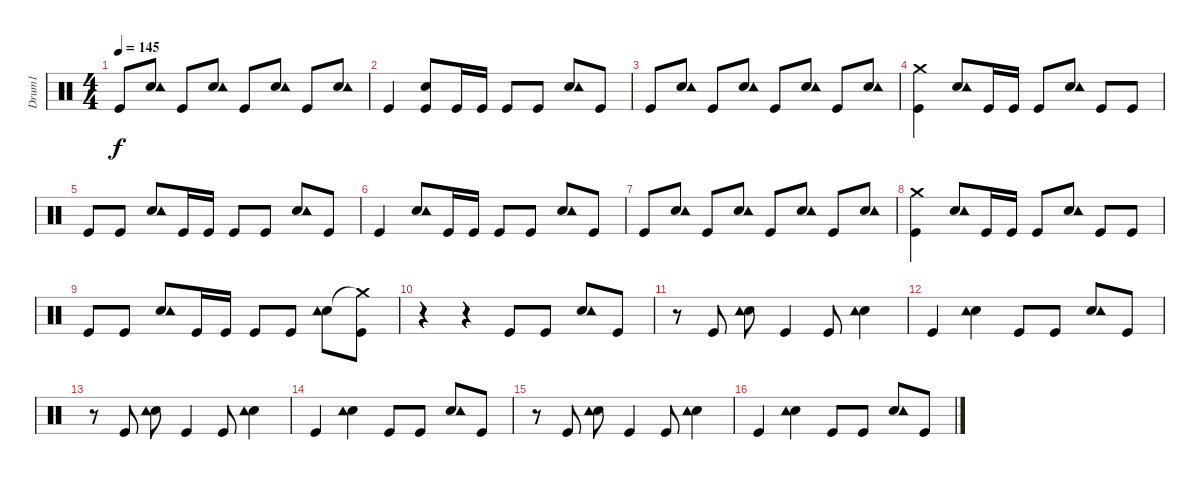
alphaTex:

\track ("Drum1" "Drum1") {instrument percussion}
\staff {score}
\articulation defaults
\ts (4 4)
\tempo 145
\clef neutral
\ks c "Kick (hit)".8{dy f}
("Snare (hit) 2" "Tambourine (hit)").8 "Kick (hit)".8 ("Snare (hit) 2" "Tambourine (hit)").8 "Kick (hit)".8 ("Snare (hit) 2" "Tambourine (hit)").8 "Kick (hit)".8 ("Snare (hit) 2" "Tambourine (hit)").8 |
"Kick (hit)".4 ("Snare (hit) 2" "Kick (hit)").8 "Kick (hit)".16 "Kick (hit)".16 "Kick (hit)".8 "Kick (hit)".8 ("Snare (hit) 2" "Tambourine (hit)").8 "Kick (hit)".8 |
"Kick (hit)".8 ("Snare (hit) 2" "Tambourine (hit)").8 "Kick (hit)".8 ("Snare (hit) 2" "Tambourine (hit)").8 "Kick (hit)".8 ("Snare (hit) 2" "Tambourine (hit)").8 "Kick (hit)".8 ("Snare (hit) 2" "Tambourine (hit)").8 |
("Kick (hit)" "Crash medium (hit)").4 ("Snare (hit) 2" "Tambourine (hit)").8 "Kick (hit)".16 "Kick (hit)".16 "Kick (hit)".8 ("Snare (hit) 2" "Tambourine (hit)").8 "Kick (hit)".8 "Kick (hit)".8 |
"Kick (hit)".8 "Kick (hit)".8 ("Snare (hit) 2" "Tambourine (hit)").8 "Kick (hit)".16 "Kick (hit)".16 "Kick (hit)".8 "Kick (hit)".8 ("Snare (hit) 2" "Tambourine (hit)").8 "Kick (hit)".8 |
"Kick (hit)".4 ("Snare (hit) 2" "Tambourine (hit)").8 "Kick (hit)".16 "Kick (hit)".16 "Kick (hit)".8 "Kick (hit)".8 ("Snare (hit) 2" "Tambourine (hit)").8 "Kick (hit)".8 |
"Kick (hit)".8 ("Snare (hit) 2" "Tambourine (hit)").8 "Kick (hit)".8 ("Snare (hit) 2" "Tambourine (hit)").8 "Kick (hit)".8 ("Snare (hit) 2" "Tambourine (hit)").8 "Kick (hit)".8 ("Snare (hit) 2" "Tambourine (hit)").8 |
("Kick (hit)" "Crash medium (hit)").4 ("Snare (hit) 2" "Tambourine (hit)").8 "Kick (hit)".16 "Kick (hit)".16 "Kick (hit)".8 ("Snare (hit) 2" "Tambourine (hit)").8 "Kick (hit)".8 "Kick (hit)".8 |
"Kick (hit)".8 "Kick (hit)".8 ("Snare (hit) 2" "Tambourine (hit)").8 "Kick (hit)".16 "Kick (hit)".16 "Kick (hit)".8 "Kick (hit)".8 ("Snare (hit) 2" "Tambourine (hit)").8 ("Kick (hit)" "Crash medium (hit)"{t}).8 |
r.4 r.4 "Kick (hit)".8 "Kick (hit)".8 ("Snare (hit) 2" "Tambourine (hit)").8 "Kick (hit)".8 |
r.8 "Kick (hit)".8 ("Snare (hit) 2" "Tambourine (hit)").8 "Kick (hit)".4 "Kick (hit)".8 ("Snare (hit) 2" "Tambourine (hit)").4 |
"Kick (hit)".4 ("Snare (hit) 2" "Tambourine (hit)").4 "Kick (hit)".8 "Kick (hit)".8 ("Snare (hit) 2" "Tambourine (hit)").8 "Kick (hit)".8 |
r.8 "Kick (hit)".8 ("Snare (hit) 2" "Tambourine (hit)").8 "Kick (hit)".4 "Kick (hit)".8 ("Snare (hit) 2" "Tambourine (hit)").4 |
"Kick (hit)".4 ("Snare (hit) 2" "Tambourine (hit)").4 "Kick (hit)".8 "Kick (hit)".8 ("Snare (hit) 2" "Tambourine (hit)").8 "Kick (hit)".8 |
r.8 "Kick (hit)".8 ("Snare (hit) 2" "Tambourine (hit)").8 "Kick (hit)".4 "Kick (hit)".8 ("Snare (hit) 2" "Tambourine (hit)").4 |
"Kick (hit)".4 ("Snare (hit) 2" "Tambourine (hit)").4 "Kick (hit)".8 "Kick (hit)".8 ("Snare (hit) 2" "Tambourine (hit)").8 "Kick (hit)".8
